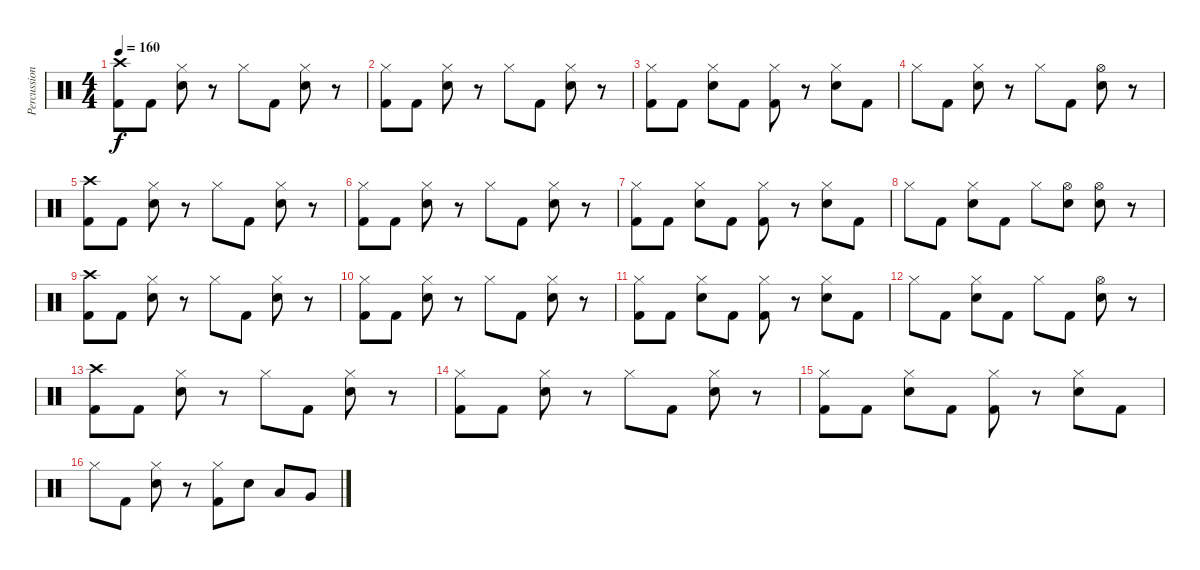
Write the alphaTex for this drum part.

\track ("Percussion" "Percussion") {instrument percussion}
\staff {score}
\articulation defaults
\ts (4 4)
\tempo 160
\clef neutral
\ks c
("Crash high (hit)" "Kick (hit) 2").8{dy f} "Kick (hit) 2".8 ("Hi-Hat (closed)" "Electric Snare (hit)").8 r.8 "Hi-Hat (closed)".8 "Kick (hit) 2".8 ("Hi-Hat (closed)" "Electric Snare (hit)").8 r.8 |
("Hi-Hat (closed)" "Kick (hit) 2").8 "Kick (hit) 2".8 ("Hi-Hat (closed)" "Electric Snare (hit)").8 r.8 "Hi-Hat (closed)".8 "Kick (hit) 2".8 ("Hi-Hat (closed)" "Electric Snare (hit)").8 r.8 |
("Hi-Hat (closed)" "Kick (hit) 2").8 "Kick (hit) 2".8 ("Hi-Hat (closed)" "Electric Snare (hit)").8 "Kick (hit) 2".8 ("Hi-Hat (closed)" "Kick (hit) 2").8 r.8 ("Hi-Hat (closed)" "Electric Snare (hit)").8 "Kick (hit) 2".8 |
"Hi-Hat (closed)".8 "Kick (hit) 2".8 ("Hi-Hat (closed)" "Electric Snare (hit)").8 r.8 "Hi-Hat (closed)".8 "Kick (hit) 2".8 ("Hi-Hat (open)" "Electric Snare (hit)").8 r.8 |
("Crash high (hit)" "Kick (hit) 2").8 "Kick (hit) 2".8 ("Hi-Hat (closed)" "Electric Snare (hit)").8 r.8 "Hi-Hat (closed)".8 "Kick (hit) 2".8 ("Hi-Hat (closed)" "Electric Snare (hit)").8 r.8 |
("Hi-Hat (closed)" "Kick (hit) 2").8 "Kick (hit) 2".8 ("Hi-Hat (closed)" "Electric Snare (hit)").8 r.8 "Hi-Hat (closed)".8 "Kick (hit) 2".8 ("Hi-Hat (closed)" "Electric Snare (hit)").8 r.8 |
("Hi-Hat (closed)" "Kick (hit) 2").8 "Kick (hit) 2".8 ("Hi-Hat (closed)" "Electric Snare (hit)").8 "Kick (hit) 2".8 ("Hi-Hat (closed)" "Kick (hit) 2").8 r.8 ("Hi-Hat (closed)" "Electric Snare (hit)").8 "Kick (hit) 2".8 |
"Hi-Hat (closed)".8 "Kick (hit) 2".8 ("Hi-Hat (closed)" "Electric Snare (hit)").8 "Kick (hit) 2".8 "Hi-Hat (closed)".8 ("Hi-Hat (open)" "Electric Snare (hit)").8 ("Hi-Hat (open)" "Electric Snare (hit)").8 r.8 |
("Crash high (hit)" "Kick (hit) 2").8 "Kick (hit) 2".8 ("Hi-Hat (closed)" "Electric Snare (hit)").8 r.8 "Hi-Hat (closed)".8 "Kick (hit) 2".8 ("Hi-Hat (closed)" "Electric Snare (hit)").8 r.8 |
("Hi-Hat (closed)" "Kick (hit) 2").8 "Kick (hit) 2".8 ("Hi-Hat (closed)" "Electric Snare (hit)").8 r.8 "Hi-Hat (closed)".8 "Kick (hit) 2".8 ("Hi-Hat (closed)" "Electric Snare (hit)").8 r.8 |
("Hi-Hat (closed)" "Kick (hit) 2").8 "Kick (hit) 2".8 ("Hi-Hat (closed)" "Electric Snare (hit)").8 "Kick (hit) 2".8 ("Hi-Hat (closed)" "Kick (hit) 2").8 r.8 ("Hi-Hat (closed)" "Electric Snare (hit)").8 "Kick (hit) 2".8 |
"Hi-Hat (closed)".8 "Kick (hit) 2".8 ("Hi-Hat (closed)" "Electric Snare (hit)").8 "Kick (hit) 2".8 "Hi-Hat (closed)".8 "Kick (hit) 2".8 ("Hi-Hat (open)" "Electric Snare (hit)").8 r.8 |
("Crash high (hit)" "Kick (hit) 2").8 "Kick (hit) 2".8 ("Hi-Hat (closed)" "Electric Snare (hit)").8 r.8 "Hi-Hat (closed)".8 "Kick (hit) 2".8 ("Hi-Hat (closed)" "Electric Snare (hit)").8 r.8 |
("Hi-Hat (closed)" "Kick (hit) 2").8 "Kick (hit) 2".8 ("Hi-Hat (closed)" "Electric Snare (hit)").8 r.8 "Hi-Hat (closed)".8 "Kick (hit) 2".8 ("Hi-Hat (closed)" "Electric Snare (hit)").8 r.8 |
("Hi-Hat (closed)" "Kick (hit) 2").8 "Kick (hit) 2".8 ("Hi-Hat (closed)" "Electric Snare (hit)").8 "Kick (hit) 2".8 ("Hi-Hat (closed)" "Kick (hit) 2").8 r.8 ("Hi-Hat (closed)" "Electric Snare (hit)").8 "Kick (hit) 2".8 |
"Hi-Hat (closed)".8 "Kick (hit) 2".8 ("Hi-Hat (closed)" "Electric Snare (hit)").8 r.8 ("Hi-Hat (closed)" "Kick (hit) 2").8 "Electric Snare (hit)".8 "Low Tom (hit)".8 "Very Low Tom (hit)".8
